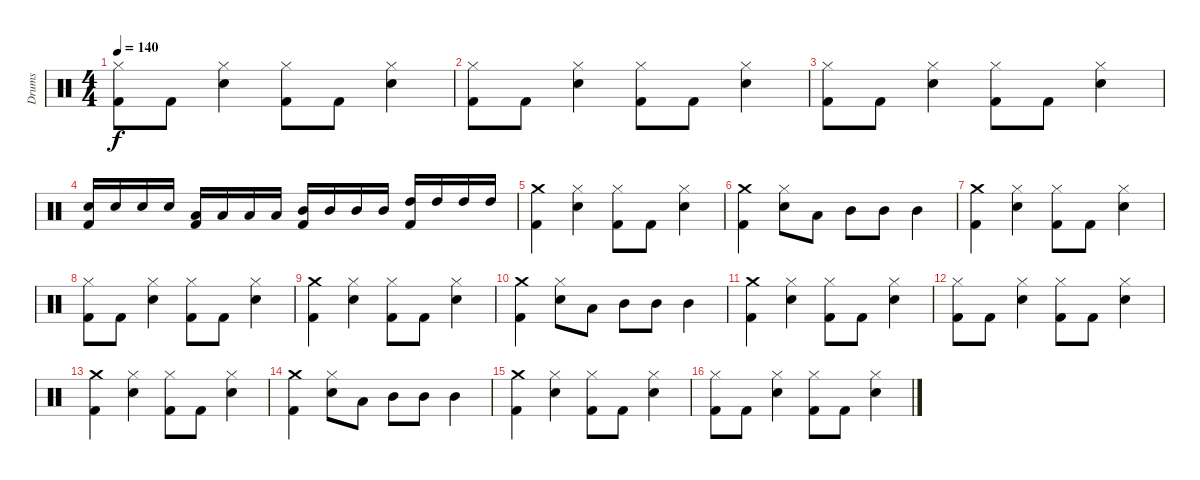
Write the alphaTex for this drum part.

\track ("Drums" "Drums") {instrument percussion}
\staff {score}
\articulation defaults
\ts (4 4)
\tempo 140
\clef neutral
\ks c
("Kick (hit) 2" "Hi-Hat (closed)").8{dy f} "Kick (hit) 2".8 ("Snare (hit) 2" "Hi-Hat (closed)").4 ("Kick (hit) 2" "Hi-Hat (closed)").8 "Kick (hit) 2".8 ("Snare (hit) 2" "Hi-Hat (closed)").4 |
("Kick (hit) 2" "Hi-Hat (closed)").8 "Kick (hit) 2".8 ("Snare (hit) 2" "Hi-Hat (closed)").4 ("Kick (hit) 2" "Hi-Hat (closed)").8 "Kick (hit) 2".8 ("Snare (hit) 2" "Hi-Hat (closed)").4 |
("Kick (hit) 2" "Hi-Hat (closed)").8 "Kick (hit) 2".8 ("Snare (hit) 2" "Hi-Hat (closed)").4 ("Kick (hit) 2" "Hi-Hat (closed)").8 "Kick (hit) 2".8 ("Snare (hit) 2" "Hi-Hat (closed)").4 |
("Snare (hit) 2" "Kick (hit) 2").16 "Snare (hit) 2".16 "Snare (hit) 2".16 "Snare (hit) 2".16 ("Low Tom (hit)" "Kick (hit) 2").16 "Low Tom (hit)".16 "Low Tom (hit)".16 "Low Tom (hit)".16 ("Mid Tom (hit)" "Kick (hit) 2").16 "Mid Tom (hit)".16 "Mid Tom (hit)".16 "Mid Tom (hit)".16 ("High Tom (hit)" "Kick (hit) 2").16 "High Tom (hit)".16 "High Tom (hit)".16 "High Tom (hit)".16 |
("Kick (hit) 2" "Crash medium (hit)").4 ("Snare (hit) 2" "Hi-Hat (closed)").4 ("Kick (hit) 2" "Hi-Hat (closed)").8 "Kick (hit) 2".8 ("Snare (hit) 2" "Hi-Hat (closed)").4 |
("Kick (hit) 2" "Crash medium (hit)").4 ("Snare (hit) 2" "Hi-Hat (closed)").8 "Low Tom (hit)".8 "Mid Tom (hit)".8 "Mid Tom (hit)".8 "Mid Tom (hit)".4 |
("Kick (hit) 2" "Crash medium (hit)").4 ("Snare (hit) 2" "Hi-Hat (closed)").4 ("Kick (hit) 2" "Hi-Hat (closed)").8 "Kick (hit) 2".8 ("Snare (hit) 2" "Hi-Hat (closed)").4 |
("Hi-Hat (closed)" "Kick (hit) 2").8 "Kick (hit) 2".8 ("Snare (hit) 2" "Hi-Hat (closed)").4 ("Hi-Hat (closed)" "Kick (hit) 2").8 "Kick (hit) 2".8 ("Snare (hit) 2" "Hi-Hat (closed)").4 |
("Kick (hit) 2" "Crash medium (hit)").4 ("Snare (hit) 2" "Hi-Hat (closed)").4 ("Kick (hit) 2" "Hi-Hat (closed)").8 "Kick (hit) 2".8 ("Snare (hit) 2" "Hi-Hat (closed)").4 |
("Kick (hit) 2" "Crash medium (hit)").4 ("Snare (hit) 2" "Hi-Hat (closed)").8 "Low Tom (hit)".8 "Mid Tom (hit)".8 "Mid Tom (hit)".8 "Mid Tom (hit)".4 |
("Kick (hit) 2" "Crash medium (hit)").4 ("Snare (hit) 2" "Hi-Hat (closed)").4 ("Kick (hit) 2" "Hi-Hat (closed)").8 "Kick (hit) 2".8 ("Snare (hit) 2" "Hi-Hat (closed)").4 |
("Hi-Hat (closed)" "Kick (hit) 2").8 "Kick (hit) 2".8 ("Snare (hit) 2" "Hi-Hat (closed)").4 ("Hi-Hat (closed)" "Kick (hit) 2").8 "Kick (hit) 2".8 ("Snare (hit) 2" "Hi-Hat (closed)").4 |
("Kick (hit) 2" "Crash medium (hit)").4 ("Snare (hit) 2" "Hi-Hat (closed)").4 ("Kick (hit) 2" "Hi-Hat (closed)").8 "Kick (hit) 2".8 ("Snare (hit) 2" "Hi-Hat (closed)").4 |
("Kick (hit) 2" "Crash medium (hit)").4 ("Snare (hit) 2" "Hi-Hat (closed)").8 "Low Tom (hit)".8 "Mid Tom (hit)".8 "Mid Tom (hit)".8 "Mid Tom (hit)".4 |
("Kick (hit) 2" "Crash medium (hit)").4 ("Snare (hit) 2" "Hi-Hat (closed)").4 ("Kick (hit) 2" "Hi-Hat (closed)").8 "Kick (hit) 2".8 ("Snare (hit) 2" "Hi-Hat (closed)").4 |
("Hi-Hat (closed)" "Kick (hit) 2").8 "Kick (hit) 2".8 ("Snare (hit) 2" "Hi-Hat (closed)").4 ("Hi-Hat (closed)" "Kick (hit) 2").8 "Kick (hit) 2".8 ("Snare (hit) 2" "Hi-Hat (closed)").4
